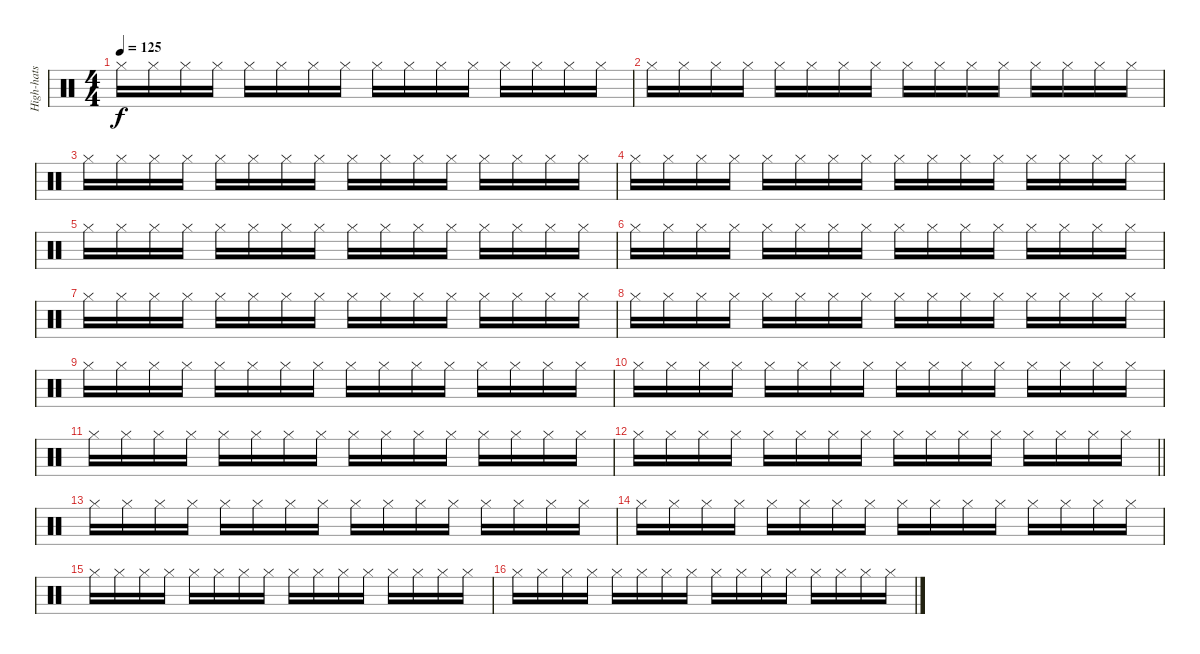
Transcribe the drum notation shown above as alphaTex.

\track ("High-hats" "High-hats") {instrument percussion}
\staff {score}
\articulation defaults
\ts (4 4)
\tempo 125
\clef neutral
\ks c "Hi-Hat (closed)".16{dy f} "Hi-Hat (closed)".16 "Hi-Hat (closed)".16 "Hi-Hat (closed)".16 "Hi-Hat (closed)".16 "Hi-Hat (closed)".16 "Hi-Hat (closed)".16 "Hi-Hat (closed)".16 "Hi-Hat (closed)".16 "Hi-Hat (closed)".16 "Hi-Hat (closed)".16 "Hi-Hat (closed)".16 "Hi-Hat (closed)".16 "Hi-Hat (closed)".16 "Hi-Hat (closed)".16 "Hi-Hat (closed)".16
|
"Hi-Hat (closed)".16 "Hi-Hat (closed)".16 "Hi-Hat (closed)".16 "Hi-Hat (closed)".16 "Hi-Hat (closed)".16 "Hi-Hat (closed)".16 "Hi-Hat (closed)".16 "Hi-Hat (closed)".16 "Hi-Hat (closed)".16 "Hi-Hat (closed)".16 "Hi-Hat (closed)".16 "Hi-Hat (closed)".16 "Hi-Hat (closed)".16 "Hi-Hat (closed)".16 "Hi-Hat (closed)".16 "Hi-Hat (closed)".16 |
"Hi-Hat (closed)".16 "Hi-Hat (closed)".16 "Hi-Hat (closed)".16 "Hi-Hat (closed)".16 "Hi-Hat (closed)".16 "Hi-Hat (closed)".16 "Hi-Hat (closed)".16 "Hi-Hat (closed)".16 "Hi-Hat (closed)".16 "Hi-Hat (closed)".16 "Hi-Hat (closed)".16 "Hi-Hat (closed)".16 "Hi-Hat (closed)".16 "Hi-Hat (closed)".16 "Hi-Hat (closed)".16 "Hi-Hat (closed)".16 |
"Hi-Hat (closed)".16 "Hi-Hat (closed)".16 "Hi-Hat (closed)".16 "Hi-Hat (closed)".16 "Hi-Hat (closed)".16 "Hi-Hat (closed)".16 "Hi-Hat (closed)".16 "Hi-Hat (closed)".16 "Hi-Hat (closed)".16 "Hi-Hat (closed)".16 "Hi-Hat (closed)".16 "Hi-Hat (closed)".16 "Hi-Hat (closed)".16 "Hi-Hat (closed)".16 "Hi-Hat (closed)".16 "Hi-Hat (closed)".16 |
"Hi-Hat (closed)".16 "Hi-Hat (closed)".16 "Hi-Hat (closed)".16 "Hi-Hat (closed)".16 "Hi-Hat (closed)".16 "Hi-Hat (closed)".16 "Hi-Hat (closed)".16 "Hi-Hat (closed)".16 "Hi-Hat (closed)".16 "Hi-Hat (closed)".16 "Hi-Hat (closed)".16 "Hi-Hat (closed)".16 "Hi-Hat (closed)".16 "Hi-Hat (closed)".16 "Hi-Hat (closed)".16 "Hi-Hat (closed)".16 |
"Hi-Hat (closed)".16 "Hi-Hat (closed)".16 "Hi-Hat (closed)".16 "Hi-Hat (closed)".16 "Hi-Hat (closed)".16 "Hi-Hat (closed)".16 "Hi-Hat (closed)".16 "Hi-Hat (closed)".16 "Hi-Hat (closed)".16 "Hi-Hat (closed)".16 "Hi-Hat (closed)".16 "Hi-Hat (closed)".16 "Hi-Hat (closed)".16 "Hi-Hat (closed)".16 "Hi-Hat (closed)".16 "Hi-Hat (closed)".16 |
"Hi-Hat (closed)".16 "Hi-Hat (closed)".16 "Hi-Hat (closed)".16 "Hi-Hat (closed)".16 "Hi-Hat (closed)".16 "Hi-Hat (closed)".16 "Hi-Hat (closed)".16 "Hi-Hat (closed)".16 "Hi-Hat (closed)".16 "Hi-Hat (closed)".16 "Hi-Hat (closed)".16 "Hi-Hat (closed)".16 "Hi-Hat (closed)".16 "Hi-Hat (closed)".16 "Hi-Hat (closed)".16 "Hi-Hat (closed)".16 |
"Hi-Hat (closed)".16 "Hi-Hat (closed)".16 "Hi-Hat (closed)".16 "Hi-Hat (closed)".16 "Hi-Hat (closed)".16 "Hi-Hat (closed)".16 "Hi-Hat (closed)".16 "Hi-Hat (closed)".16 "Hi-Hat (closed)".16 "Hi-Hat (closed)".16 "Hi-Hat (closed)".16 "Hi-Hat (closed)".16 "Hi-Hat (closed)".16 "Hi-Hat (closed)".16 "Hi-Hat (closed)".16 "Hi-Hat (closed)".16 |
"Hi-Hat (closed)".16 "Hi-Hat (closed)".16 "Hi-Hat (closed)".16 "Hi-Hat (closed)".16 "Hi-Hat (closed)".16 "Hi-Hat (closed)".16 "Hi-Hat (closed)".16 "Hi-Hat (closed)".16 "Hi-Hat (closed)".16 "Hi-Hat (closed)".16 "Hi-Hat (closed)".16 "Hi-Hat (closed)".16 "Hi-Hat (closed)".16 "Hi-Hat (closed)".16 "Hi-Hat (closed)".16 "Hi-Hat (closed)".16 |
"Hi-Hat (closed)".16 "Hi-Hat (closed)".16 "Hi-Hat (closed)".16 "Hi-Hat (closed)".16 "Hi-Hat (closed)".16 "Hi-Hat (closed)".16 "Hi-Hat (closed)".16 "Hi-Hat (closed)".16 "Hi-Hat (closed)".16 "Hi-Hat (closed)".16 "Hi-Hat (closed)".16 "Hi-Hat (closed)".16 "Hi-Hat (closed)".16 "Hi-Hat (closed)".16 "Hi-Hat (closed)".16 "Hi-Hat (closed)".16 |
"Hi-Hat (closed)".16 "Hi-Hat (closed)".16 "Hi-Hat (closed)".16 "Hi-Hat (closed)".16 "Hi-Hat (closed)".16 "Hi-Hat (closed)".16 "Hi-Hat (closed)".16 "Hi-Hat (closed)".16 "Hi-Hat (closed)".16 "Hi-Hat (closed)".16 "Hi-Hat (closed)".16 "Hi-Hat (closed)".16 "Hi-Hat (closed)".16 "Hi-Hat (closed)".16 "Hi-Hat (closed)".16 "Hi-Hat (closed)".16 |
\barLineRight lightlight "Hi-Hat (closed)".16 "Hi-Hat (closed)".16 "Hi-Hat (closed)".16 "Hi-Hat (closed)".16 "Hi-Hat (closed)".16 "Hi-Hat (closed)".16 "Hi-Hat (closed)".16 "Hi-Hat (closed)".16 "Hi-Hat (closed)".16 "Hi-Hat (closed)".16 "Hi-Hat (closed)".16 "Hi-Hat (closed)".16 "Hi-Hat (closed)".16 "Hi-Hat (closed)".16 "Hi-Hat (closed)".16 "Hi-Hat (closed)".16
|
"Hi-Hat (closed)".16 "Hi-Hat (closed)".16 "Hi-Hat (closed)".16 "Hi-Hat (closed)".16 "Hi-Hat (closed)".16 "Hi-Hat (closed)".16 "Hi-Hat (closed)".16 "Hi-Hat (closed)".16 "Hi-Hat (closed)".16 "Hi-Hat (closed)".16 "Hi-Hat (closed)".16 "Hi-Hat (closed)".16 "Hi-Hat (closed)".16 "Hi-Hat (closed)".16 "Hi-Hat (closed)".16 "Hi-Hat (closed)".16 |
"Hi-Hat (closed)".16 "Hi-Hat (closed)".16 "Hi-Hat (closed)".16 "Hi-Hat (closed)".16 "Hi-Hat (closed)".16 "Hi-Hat (closed)".16 "Hi-Hat (closed)".16 "Hi-Hat (closed)".16 "Hi-Hat (closed)".16 "Hi-Hat (closed)".16 "Hi-Hat (closed)".16 "Hi-Hat (closed)".16 "Hi-Hat (closed)".16 "Hi-Hat (closed)".16 "Hi-Hat (closed)".16 "Hi-Hat (closed)".16 |
"Hi-Hat (closed)".16 "Hi-Hat (closed)".16 "Hi-Hat (closed)".16 "Hi-Hat (closed)".16 "Hi-Hat (closed)".16 "Hi-Hat (closed)".16 "Hi-Hat (closed)".16 "Hi-Hat (closed)".16 "Hi-Hat (closed)".16 "Hi-Hat (closed)".16 "Hi-Hat (closed)".16 "Hi-Hat (closed)".16 "Hi-Hat (closed)".16 "Hi-Hat (closed)".16 "Hi-Hat (closed)".16 "Hi-Hat (closed)".16 |
"Hi-Hat (closed)".16 "Hi-Hat (closed)".16 "Hi-Hat (closed)".16 "Hi-Hat (closed)".16 "Hi-Hat (closed)".16 "Hi-Hat (closed)".16 "Hi-Hat (closed)".16 "Hi-Hat (closed)".16 "Hi-Hat (closed)".16 "Hi-Hat (closed)".16 "Hi-Hat (closed)".16 "Hi-Hat (closed)".16 "Hi-Hat (closed)".16 "Hi-Hat (closed)".16 "Hi-Hat (closed)".16 "Hi-Hat (closed)".16
